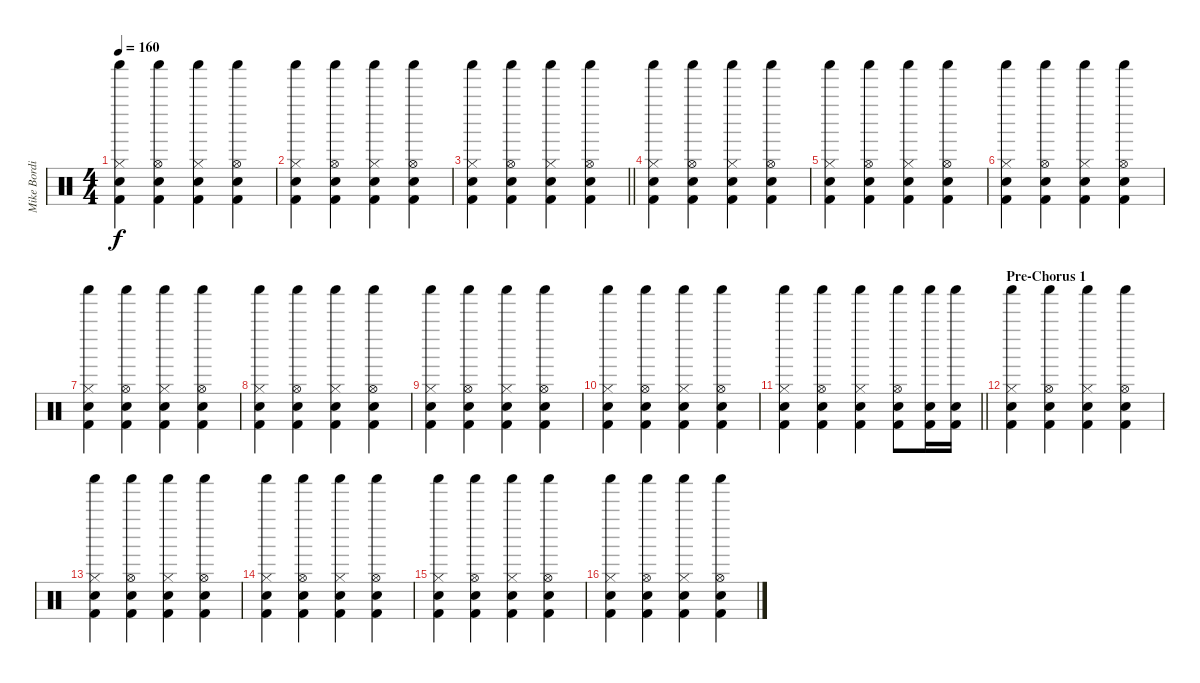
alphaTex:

\track ("Mike Bordin - Percussion" "Mike Bordi") {instrument percussion}
\staff {score}
\articulation defaults
\ts (4 4)
\tempo 160
\clef neutral
\ks c
("Shaker (hit)" "Snare (hit) 2" "Hi-Hat (closed)" "Kick (hit) 2").4{dy f} ("Shaker (hit)" "Snare (hit) 2" "Hi-Hat (open)" "Kick (hit) 2").4 ("Shaker (hit)" "Snare (hit) 2" "Hi-Hat (closed)" "Kick (hit) 2").4 ("Shaker (hit)" "Snare (hit) 2" "Hi-Hat (open)" "Kick (hit) 2").4 |
("Shaker (hit)" "Snare (hit) 2" "Hi-Hat (closed)" "Kick (hit) 2").4 ("Shaker (hit)" "Snare (hit) 2" "Hi-Hat (open)" "Kick (hit) 2").4 ("Shaker (hit)" "Snare (hit) 2" "Hi-Hat (closed)" "Kick (hit) 2").4 ("Shaker (hit)" "Snare (hit) 2" "Hi-Hat (open)" "Kick (hit) 2").4 |
\barLineRight lightlight
("Shaker (hit)" "Snare (hit) 2" "Hi-Hat (closed)" "Kick (hit) 2").4 ("Shaker (hit)" "Snare (hit) 2" "Hi-Hat (open)" "Kick (hit) 2").4 ("Shaker (hit)" "Snare (hit) 2" "Hi-Hat (closed)" "Kick (hit) 2").4 ("Shaker (hit)" "Snare (hit) 2" "Hi-Hat (open)" "Kick (hit) 2").4 |
\section ("" "")
("Shaker (hit)" "Snare (hit) 2" "Hi-Hat (closed)" "Kick (hit) 2").4 ("Shaker (hit)" "Snare (hit) 2" "Hi-Hat (open)" "Kick (hit) 2").4 ("Shaker (hit)" "Snare (hit) 2" "Hi-Hat (closed)" "Kick (hit) 2").4 ("Shaker (hit)" "Snare (hit) 2" "Hi-Hat (open)" "Kick (hit) 2").4 |
("Shaker (hit)" "Snare (hit) 2" "Hi-Hat (closed)" "Kick (hit) 2").4 ("Shaker (hit)" "Snare (hit) 2" "Hi-Hat (open)" "Kick (hit) 2").4 ("Shaker (hit)" "Snare (hit) 2" "Hi-Hat (closed)" "Kick (hit) 2").4 ("Shaker (hit)" "Snare (hit) 2" "Hi-Hat (open)" "Kick (hit) 2").4 |
("Shaker (hit)" "Snare (hit) 2" "Hi-Hat (closed)" "Kick (hit) 2").4 ("Shaker (hit)" "Snare (hit) 2" "Hi-Hat (open)" "Kick (hit) 2").4 ("Shaker (hit)" "Snare (hit) 2" "Hi-Hat (closed)" "Kick (hit) 2").4 ("Shaker (hit)" "Snare (hit) 2" "Hi-Hat (open)" "Kick (hit) 2").4 |
("Shaker (hit)" "Snare (hit) 2" "Hi-Hat (closed)" "Kick (hit) 2").4 ("Shaker (hit)" "Snare (hit) 2" "Hi-Hat (open)" "Kick (hit) 2").4 ("Shaker (hit)" "Snare (hit) 2" "Hi-Hat (closed)" "Kick (hit) 2").4 ("Shaker (hit)" "Snare (hit) 2" "Hi-Hat (open)" "Kick (hit) 2").4 |
("Shaker (hit)" "Snare (hit) 2" "Hi-Hat (closed)" "Kick (hit) 2").4 ("Shaker (hit)" "Snare (hit) 2" "Hi-Hat (open)" "Kick (hit) 2").4 ("Shaker (hit)" "Snare (hit) 2" "Hi-Hat (closed)" "Kick (hit) 2").4 ("Shaker (hit)" "Snare (hit) 2" "Hi-Hat (open)" "Kick (hit) 2").4 |
("Shaker (hit)" "Snare (hit) 2" "Hi-Hat (closed)" "Kick (hit) 2").4 ("Shaker (hit)" "Snare (hit) 2" "Hi-Hat (open)" "Kick (hit) 2").4 ("Shaker (hit)" "Snare (hit) 2" "Hi-Hat (closed)" "Kick (hit) 2").4 ("Shaker (hit)" "Snare (hit) 2" "Hi-Hat (open)" "Kick (hit) 2").4 |
("Shaker (hit)" "Snare (hit) 2" "Hi-Hat (closed)" "Kick (hit) 2").4 ("Shaker (hit)" "Snare (hit) 2" "Hi-Hat (open)" "Kick (hit) 2").4 ("Shaker (hit)" "Snare (hit) 2" "Hi-Hat (closed)" "Kick (hit) 2").4 ("Shaker (hit)" "Snare (hit) 2" "Hi-Hat (open)" "Kick (hit) 2").4 |
\barLineRight lightlight
("Shaker (hit)" "Snare (hit) 2" "Hi-Hat (closed)" "Kick (hit) 2").4{volume 16} ("Shaker (hit)" "Snare (hit) 2" "Hi-Hat (open)" "Kick (hit) 2").4 ("Shaker (hit)" "Snare (hit) 2" "Hi-Hat (closed)" "Kick (hit) 2").4 ("Shaker (hit)" "Snare (hit) 2" "Hi-Hat (open)" "Kick (hit) 2").8 ("Shaker (hit)" "Snare (hit) 2" "Kick (hit) 2").16 ("Shaker (hit)" "Snare (hit) 2" "Kick (hit) 2").16 |
\section ("" "Pre-Chorus 1")
("Shaker (hit)" "Snare (hit) 2" "Hi-Hat (closed)" "Kick (hit) 2").4 ("Shaker (hit)" "Snare (hit) 2" "Hi-Hat (open)" "Kick (hit) 2").4 ("Shaker (hit)" "Snare (hit) 2" "Hi-Hat (closed)" "Kick (hit) 2").4 ("Shaker (hit)" "Snare (hit) 2" "Hi-Hat (open)" "Kick (hit) 2").4 |
("Shaker (hit)" "Snare (hit) 2" "Hi-Hat (closed)" "Kick (hit) 2").4 ("Shaker (hit)" "Snare (hit) 2" "Hi-Hat (open)" "Kick (hit) 2").4 ("Shaker (hit)" "Snare (hit) 2" "Hi-Hat (closed)" "Kick (hit) 2").4 ("Shaker (hit)" "Snare (hit) 2" "Hi-Hat (open)" "Kick (hit) 2").4 |
("Shaker (hit)" "Snare (hit) 2" "Hi-Hat (closed)" "Kick (hit) 2").4 ("Shaker (hit)" "Snare (hit) 2" "Hi-Hat (open)" "Kick (hit) 2").4 ("Shaker (hit)" "Snare (hit) 2" "Hi-Hat (closed)" "Kick (hit) 2").4 ("Shaker (hit)" "Snare (hit) 2" "Hi-Hat (open)" "Kick (hit) 2").4 |
("Shaker (hit)" "Snare (hit) 2" "Hi-Hat (closed)" "Kick (hit) 2").4 ("Shaker (hit)" "Snare (hit) 2" "Hi-Hat (open)" "Kick (hit) 2").4 ("Shaker (hit)" "Snare (hit) 2" "Hi-Hat (closed)" "Kick (hit) 2").4 ("Shaker (hit)" "Snare (hit) 2" "Hi-Hat (open)" "Kick (hit) 2").4 |
("Shaker (hit)" "Snare (hit) 2" "Hi-Hat (closed)" "Kick (hit) 2").4 ("Shaker (hit)" "Snare (hit) 2" "Hi-Hat (open)" "Kick (hit) 2").4 ("Shaker (hit)" "Snare (hit) 2" "Hi-Hat (closed)" "Kick (hit) 2").4 ("Shaker (hit)" "Snare (hit) 2" "Hi-Hat (open)" "Kick (hit) 2").4
